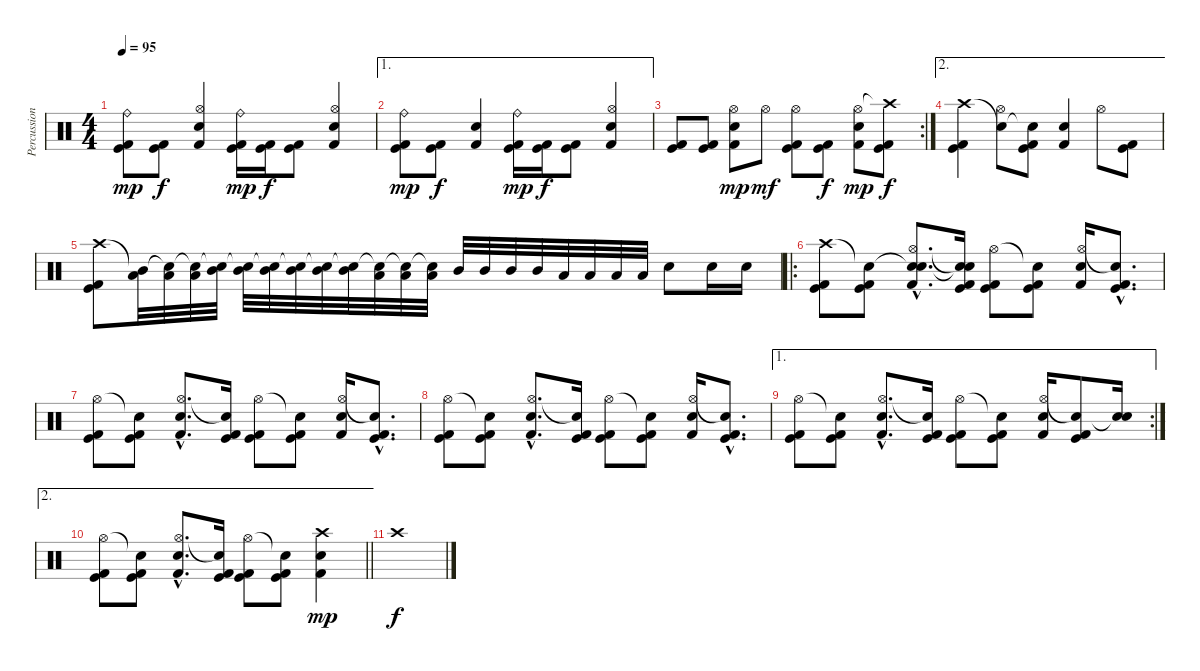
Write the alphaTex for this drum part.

\track ("Percussion" "Percussion") {instrument percussion}
\staff {score}
\articulation defaults
\ts (4 4)
\tempo 95
\clef neutral
\ks c
("Ride (bell)" "Kick (hit) 2" "Kick (hit)").8{dy mp} ("Kick (hit) 2" "Kick (hit)").8{dy f} ("Hi-Hat (open)" "Snare (hit) 2" "Kick (hit) 2").4 ("Ride (bell)" "Kick (hit) 2" "Kick (hit)").16{dy mp} ("Kick (hit) 2" "Kick (hit)").16{dy f} ("Kick (hit) 2" "Kick (hit)").8 ("Hi-Hat (open)" "Snare (hit) 2" "Kick (hit) 2").4 |
\ae 1
("Ride (bell)" "Kick (hit) 2" "Kick (hit)").8{dy mp} ("Kick (hit) 2" "Kick (hit)").8{dy f} ("Snare (hit) 2" "Kick (hit) 2").4 ("Ride (bell)" "Kick (hit) 2" "Kick (hit)").16{dy mp} ("Kick (hit) 2" "Kick (hit)").16{dy f} ("Kick (hit) 2" "Kick (hit)").8 ("Hi-Hat (open)" "Snare (hit) 2" "Kick (hit) 2").4 |
\rc 2
("Kick (hit) 2" "Kick (hit)").8 ("Kick (hit) 2" "Kick (hit)").8 ("Hi-Hat (open)" "Snare (hit) 2" "Kick (hit) 2").8{dy mp} "Hi-Hat (open)".8{dy mf} ("Hi-Hat (open)" "Kick (hit) 2" "Kick (hit)").8 ("Kick (hit) 2" "Kick (hit)").8{dy f} ("Hi-Hat (open)" "Snare (hit) 2" "Kick (hit) 2").8{dy mp} ("Crash high (hit)"{t} "Kick (hit) 2" "Kick (hit)").8{dy f} |
\ae 2
("Crash high (hit)" "Kick (hit) 2" "Kick (hit)").4 ("Snare (hit)"{t} "Hi-Hat (open)").8 ("Snare (hit)"{t} "Kick (hit) 2" "Kick (hit)").8 ("Snare (hit) 2" "Kick (hit) 2").4 "Hi-Hat (open)".8 ("Kick (hit) 2" "Kick (hit)").8 |
("Crash high (hit)" "Kick (hit)" "Kick (hit) 2").8 ("Mid Tom (hit)"{t} "Low Tom (hit)").32 ("Snare (hit)"{t} "Low Tom (hit)").32 ("Snare (hit)"{t} "Low Tom (hit)").32 ("Snare (hit)"{t} "Mid Tom (hit)").32 ("Snare (hit)"{t} "Mid Tom (hit)").32 ("Snare (hit)"{t} "Mid Tom (hit)").32 ("Snare (hit)"{t} "Mid Tom (hit)").32 ("Snare (hit)"{t} "Mid Tom (hit)").32 ("Snare (hit)"{t} "Mid Tom (hit)").32 ("Snare (hit)"{t} "Low Tom (hit)").32 ("Snare (hit)"{t} "Low Tom (hit)").32 ("Snare (hit)"{t} "Low Tom (hit)").32 "Mid Tom (hit)".32 "Mid Tom (hit)".32 "Mid Tom (hit)".32 "Mid Tom (hit)".32 "Low Tom (hit)".32 "Low Tom (hit)".32 "Low Tom (hit)".32 "Low Tom (hit)".32 "Snare (hit) 2".8 "Snare (hit) 2".16 "Snare (hit) 2".16 |
\ro
("Crash high (hit)" "Kick (hit) 2" "Kick (hit)").8 ("Snare (hit)"{t} "Kick (hit) 2" "Kick (hit)").8 ("Snare (hit)"{hac t} "Hi-Hat (open)"{hac} "Snare (hit) 2"{hac} "Kick (hit) 2"{hac}).8{d} ("Snare (hit)"{t} "Snare (hit)"{t} "Kick (hit) 2" "Kick (hit)").16 ("Hi-Hat (open)" "Kick (hit) 2" "Kick (hit)").8 ("Snare (hit)"{t} "Kick (hit)" "Kick (hit) 2").8 ("Hi-Hat (open)" "Snare (hit) 2" "Kick (hit) 2").16 ("Snare (hit)"{hac t} "Kick (hit) 2"{hac} "Kick (hit)"{hac}).8{d} |
("Hi-Hat (open)" "Kick (hit) 2" "Kick (hit)").8 ("Snare (hit)"{t} "Kick (hit) 2" "Kick (hit)").8 ("Hi-Hat (open)"{hac} "Snare (hit) 2"{hac} "Kick (hit) 2"{hac}).8{d} ("Snare (hit)"{t} "Kick (hit) 2" "Kick (hit)").16 ("Hi-Hat (open)" "Kick (hit) 2" "Kick (hit)").8 ("Snare (hit)"{t} "Kick (hit)" "Kick (hit) 2").8 ("Hi-Hat (open)" "Snare (hit) 2" "Kick (hit) 2").16 ("Snare (hit)"{hac t} "Kick (hit) 2"{hac} "Kick (hit)"{hac}).8{d} |
("Hi-Hat (open)" "Kick (hit) 2" "Kick (hit)").8 ("Snare (hit)"{t} "Kick (hit) 2" "Kick (hit)").8 ("Hi-Hat (open)"{hac} "Snare (hit) 2"{hac} "Kick (hit) 2"{hac}).8{d} ("Snare (hit)"{t} "Kick (hit) 2" "Kick (hit)").16 ("Hi-Hat (open)" "Kick (hit) 2" "Kick (hit)").8 ("Snare (hit)"{t} "Kick (hit)" "Kick (hit) 2").8 ("Hi-Hat (open)" "Snare (hit) 2" "Kick (hit) 2").16 ("Snare (hit)"{hac t} "Kick (hit) 2"{hac} "Kick (hit)"{hac}).8{d} |
\ae 1
\rc 2
("Hi-Hat (open)" "Kick (hit) 2" "Kick (hit)").8 ("Snare (hit)"{t} "Kick (hit) 2" "Kick (hit)").8 ("Hi-Hat (open)"{hac} "Snare (hit) 2"{hac} "Kick (hit) 2"{hac}).8{d} ("Snare (hit)"{t} "Kick (hit) 2" "Kick (hit)").16 ("Hi-Hat (open)" "Kick (hit) 2" "Kick (hit)").8 ("Snare (hit)"{t} "Kick (hit)" "Kick (hit) 2").8 ("Hi-Hat (open)" "Snare (hit) 2" "Kick (hit) 2").16 ("Snare (hit)"{t} "Kick (hit) 2" "Kick (hit)").8 ("Snare (hit)"{t} "Snare (hit) 2").16 |
\ae 2
\barLineRight lightlight
("Hi-Hat (open)" "Kick (hit) 2" "Kick (hit)").8 ("Snare (hit)"{t} "Kick (hit) 2" "Kick (hit)").8 ("Hi-Hat (open)"{hac} "Snare (hit) 2"{hac} "Kick (hit) 2"{hac}).8{d} ("Snare (hit)"{t} "Kick (hit) 2" "Kick (hit)").16 ("Hi-Hat (open)" "Kick (hit) 2" "Kick (hit)").8 ("Snare (hit)"{t} "Kick (hit)" "Kick (hit) 2").8 ("Crash high (hit)" "Snare (hit) 2" "Kick (hit) 2").4{dy mp} |
"Crash high (hit)".1{dy f}
